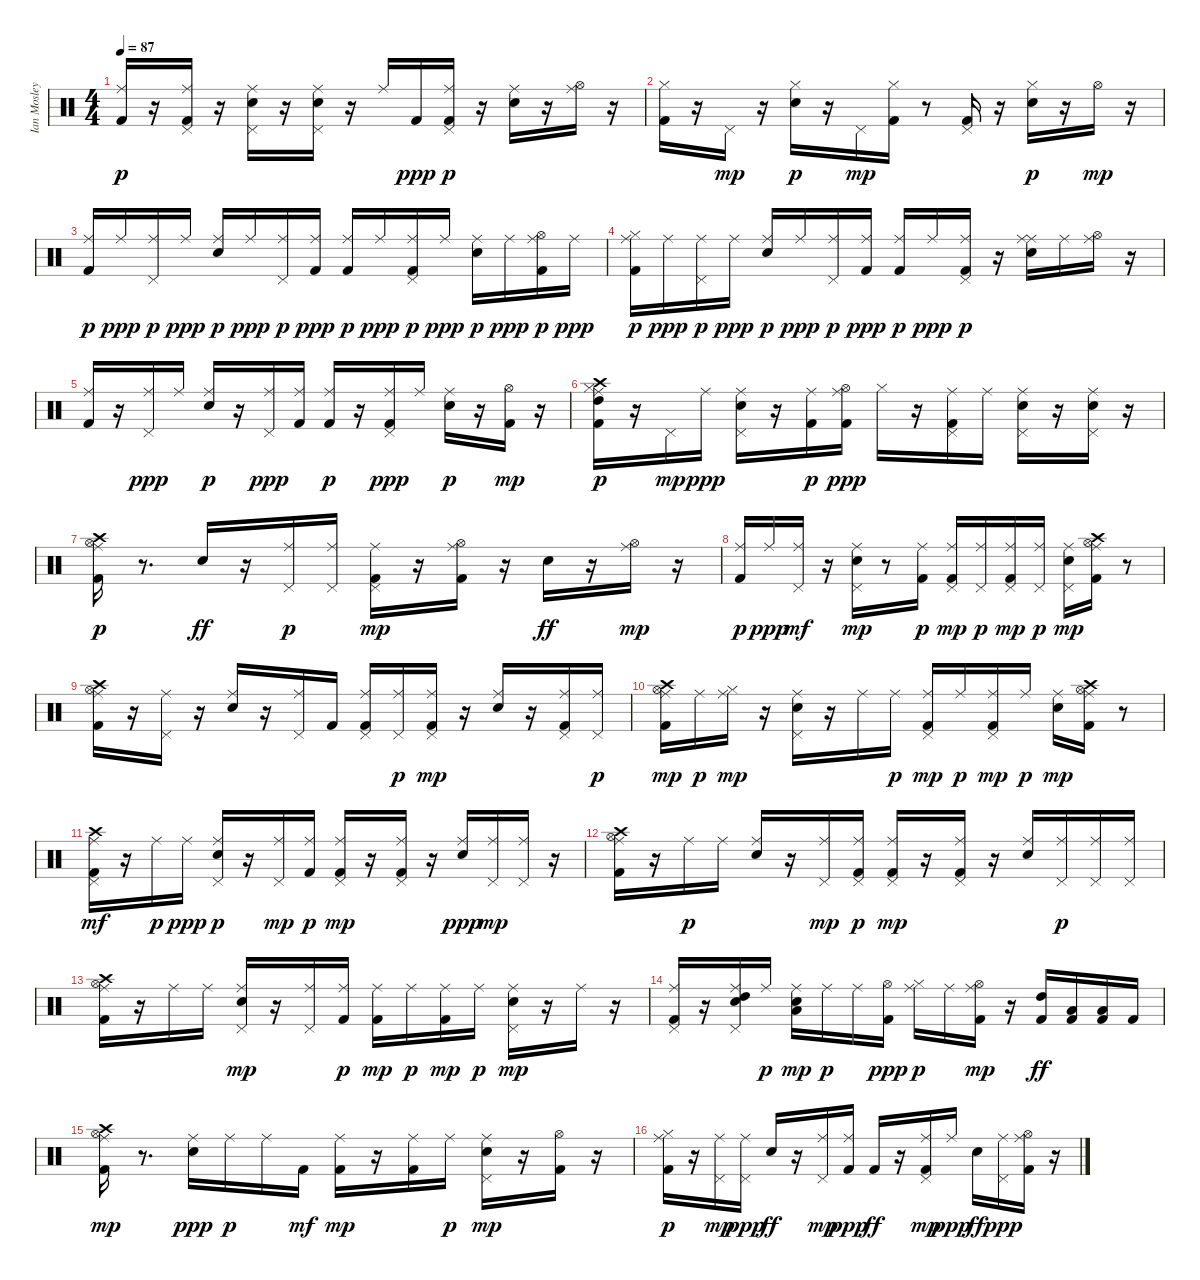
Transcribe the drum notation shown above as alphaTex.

\track ("Ian Mosley" "Ian Mosley") {instrument percussion}
\staff {score}
\articulation defaults
\ts (4 4)
\tempo 87
\clef neutral
\ks c
("Kick (hit) 2" "Ride (middle)").16{dy p} r.16 ("Kick (hit) 2" "Pedal Hi-Hat (hit)" "Ride (middle)").16 r.16 ("Snare (hit) 2" "Pedal Hi-Hat (hit)" "Ride (middle)").16 r.16 ("Snare (hit) 2" "Pedal Hi-Hat (hit)" "Ride (middle)").16 r.16 "Ride (middle)".16 "Kick (hit) 2".16{dy ppp} ("Kick (hit) 2" "Pedal Hi-Hat (hit)" "Ride (middle)").16{dy p} r.16 ("Snare (hit) 2" "Ride (middle)").16 r.16 ("Hi-Hat (open)" "Ride (middle)").16 r.16 |
("Kick (hit) 2" "Hi-Hat (closed)").16 r.16 "Pedal Hi-Hat (hit)".16{dy mp} r.16 ("Snare (hit) 2" "Hi-Hat (closed)").16{dy p} r.16 "Pedal Hi-Hat (hit)".16{dy mp} ("Kick (hit) 2" "Hi-Hat (closed)").16 r.8 ("Kick (hit) 2" "Pedal Hi-Hat (hit)").16 r.16 ("Snare (hit) 2" "Hi-Hat (closed)").16{dy p} r.16 "Hi-Hat (open)".16{dy mp} r.16 |
("Kick (hit) 2" "Ride (middle)").16{dy p} "Ride (middle)".16{dy ppp} ("Pedal Hi-Hat (hit)" "Ride (middle)").16{dy p} "Ride (middle)".16{dy ppp} ("Snare (hit) 2" "Ride (middle)").16{dy p} "Ride (middle)".16{dy ppp} ("Pedal Hi-Hat (hit)" "Ride (middle)").16{dy p} ("Kick (hit) 2" "Ride (middle)").16{dy ppp} ("Kick (hit) 2" "Ride (middle)").16{dy p} "Ride (middle)".16{dy ppp} ("Kick (hit) 2" "Pedal Hi-Hat (hit)" "Ride (middle)").16{dy p} "Ride (middle)".16{dy ppp} ("Snare (hit) 2" "Ride (middle)").16{dy p} "Ride (middle)".16{dy ppp} ("Hi-Hat (open)" "Kick (hit) 2" "Ride (middle)").16{dy p} "Ride (middle)".16{dy ppp} |
("Hi-Hat (closed)" "Kick (hit) 2" "Ride (middle)").16{dy p} "Ride (middle)".16{dy ppp} ("Pedal Hi-Hat (hit)" "Ride (middle)").16{dy p} "Ride (middle)".16{dy ppp} ("Snare (hit) 2" "Ride (middle)").16{dy p} "Ride (middle)".16{dy ppp} ("Pedal Hi-Hat (hit)" "Ride (middle)").16{dy p} ("Kick (hit) 2" "Ride (middle)").16{dy ppp} ("Kick (hit) 2" "Ride (middle)").16{dy p} "Ride (middle)".16{dy ppp} ("Kick (hit) 2" "Pedal Hi-Hat (hit)" "Ride (middle)").16{dy p} r.16 ("Snare (hit) 2" "Ride (middle)" "Ride (middle)").16 "Ride (middle)".16 ("Hi-Hat (open)" "Ride (middle)").16 r.16 |
("Kick (hit) 2" "Ride (middle)").16 r.16 ("Pedal Hi-Hat (hit)" "Ride (middle)").16{dy ppp} "Ride (middle)".16 ("Snare (hit) 2" "Ride (middle)").16{dy p} r.16 ("Pedal Hi-Hat (hit)" "Ride (middle)").16{dy ppp} ("Kick (hit) 2" "Ride (middle)").16 ("Kick (hit) 2" "Ride (middle)").16{dy p} r.16 ("Kick (hit) 2" "Pedal Hi-Hat (hit)" "Ride (middle)").16{dy ppp} "Ride (middle)".16 ("Snare (hit) 2" "Ride (middle)").16{dy p} r.16 ("Kick (hit) 2" "Hi-Hat (open)").16{dy mp} r.16 |
("Kick (hit) 2" "High Tom (hit)" "Hi-Hat (closed)" "Crash high (hit)" "Ride (middle)").16{dy p} r.16 "Pedal Hi-Hat (hit)".16{dy mp} "Ride (middle)".16{dy ppp} ("Snare (hit) 2" "Pedal Hi-Hat (hit)" "Ride (middle)").16 r.16 ("Kick (hit) 2" "Ride (middle)").16{dy p} ("Kick (hit) 2" "Hi-Hat (open)" "Ride (middle)").16{dy ppp} "Hi-Hat (closed)".16 r.16 ("Kick (hit) 2" "Pedal Hi-Hat (hit)" "Ride (middle)").16 "Ride (middle)".16 ("Snare (hit) 2" "Pedal Hi-Hat (hit)" "Ride (middle)").16 r.16 ("Snare (hit) 2" "Pedal Hi-Hat (hit)" "Ride (middle)").16 r.16 |
("Kick (hit) 2" "Hi-Hat (open)" "Crash high (hit)" "Ride (middle)").16{dy p} r.8{d} "Snare (hit) 2".16{dy ff} r.16 ("Pedal Hi-Hat (hit)" "Ride (middle)").16{dy p} ("Pedal Hi-Hat (hit)" "Ride (middle)").16 ("Pedal Hi-Hat (hit)" "Kick (hit) 2" "Ride (middle)").16{dy mp} r.16 ("Kick (hit) 2" "Hi-Hat (open)" "Ride (middle)").16 r.16 "Snare (hit) 2".16{dy ff} r.16 ("Hi-Hat (open)" "Ride (middle)").16{dy mp} r.16 |
("Kick (hit) 2" "Ride (middle)").16{dy p} "Ride (middle)".16{dy ppp} ("Pedal Hi-Hat (hit)" "Ride (middle)").16{dy mf} r.16 ("Snare (hit) 2" "Pedal Hi-Hat (hit)" "Ride (middle)").16{dy mp} r.8 ("Kick (hit) 2" "Ride (middle)").16{dy p} ("Kick (hit) 2" "Pedal Hi-Hat (hit)" "Ride (middle)").16{dy mp} ("Pedal Hi-Hat (hit)" "Ride (middle)").16{dy p} ("Kick (hit) 2" "Pedal Hi-Hat (hit)" "Ride (middle)").16{dy mp} ("Pedal Hi-Hat (hit)" "Ride (middle)").16{dy p} ("Snare (hit) 2" "Pedal Hi-Hat (hit)" "Ride (middle)").16{dy mp} ("Kick (hit) 2" "Hi-Hat (open)" "Crash high (hit)" "Ride (middle)").16 r.8 |
("Kick (hit) 2" "Hi-Hat (open)" "Crash high (hit)" "Ride (middle)").16 r.16 ("Pedal Hi-Hat (hit)" "Ride (middle)").16 r.16 ("Snare (hit) 2" "Ride (middle)").16 r.16 ("Pedal Hi-Hat (hit)" "Ride (middle)").16 "Kick (hit) 2".16 ("Kick (hit) 2" "Pedal Hi-Hat (hit)" "Ride (middle)").16 ("Pedal Hi-Hat (hit)" "Ride (middle)").16{dy p} ("Kick (hit) 2" "Pedal Hi-Hat (hit)" "Ride (middle)").16{dy mp} r.16 ("Snare (hit) 2" "Ride (middle)").16 r.16 ("Pedal Hi-Hat (hit)" "Kick (hit) 2" "Ride (middle)").16 ("Pedal Hi-Hat (hit)" "Ride (middle)").16{dy p} |
("Kick (hit) 2" "Hi-Hat (open)" "Crash high (hit)" "Ride (middle)").16{dy mp} "Ride (middle)".16{dy p} ("Hi-Hat (closed)" "Ride (middle)").16{dy mp} r.16 ("Snare (hit) 2" "Pedal Hi-Hat (hit)" "Ride (middle)").16 r.16 "Ride (middle)".16 "Ride (middle)".16{dy p} ("Pedal Hi-Hat (hit)" "Kick (hit) 2" "Ride (middle)").16{dy mp} "Ride (middle)".16{dy p} ("Kick (hit) 2" "Pedal Hi-Hat (hit)" "Ride (middle)").16{dy mp} "Ride (middle)".16{dy p} ("Snare (hit) 2" "Ride (middle)").16{dy mp} ("Kick (hit) 2" "Hi-Hat (open)" "Crash high (hit)" "Ride (middle)").16 r.8 |
("Kick (hit) 2" "Crash high (hit)" "Pedal Hi-Hat (hit)" "Ride (middle)").16{dy mf} r.16 "Ride (middle)".16{dy p} "Ride (middle)".16{dy ppp} ("Snare (hit) 2" "Pedal Hi-Hat (hit)" "Ride (middle)").16{dy p} r.16 ("Pedal Hi-Hat (hit)" "Ride (middle)").16{dy mp} ("Kick (hit) 2" "Ride (middle)").16{dy p} ("Kick (hit) 2" "Pedal Hi-Hat (hit)" "Ride (middle)").16{dy mp} r.16 ("Kick (hit) 2" "Pedal Hi-Hat (hit)" "Ride (middle)").16 r.16 ("Snare (hit) 2" "Ride (middle)").16{dy ppp} ("Pedal Hi-Hat (hit)" "Ride (middle)").16{dy mp} ("Pedal Hi-Hat (hit)" "Ride (middle)").16 r.16 |
("Kick (hit) 2" "Hi-Hat (open)" "Crash high (hit)" "Ride (middle)").16 r.16 "Ride (middle)".16{dy p} "Ride (middle)".16 ("Snare (hit) 2" "Ride (middle)").16 r.16 ("Pedal Hi-Hat (hit)" "Ride (middle)").16{dy mp} ("Kick (hit) 2" "Pedal Hi-Hat (hit)" "Ride (middle)").16{dy p} ("Kick (hit) 2" "Pedal Hi-Hat (hit)" "Ride (middle)").16{dy mp} r.16 ("Kick (hit) 2" "Pedal Hi-Hat (hit)" "Ride (middle)").16 r.16 ("Snare (hit) 2" "Ride (middle)").16 ("Pedal Hi-Hat (hit)" "Ride (middle)").16{dy p} ("Pedal Hi-Hat (hit)" "Ride (middle)").16 ("Pedal Hi-Hat (hit)" "Ride (middle)").16 |
("Hi-Hat (open)" "Kick (hit) 2" "Crash high (hit)" "Ride (middle)").16 r.16 "Ride (middle)".16 "Ride (middle)".16 ("Snare (hit) 2" "Pedal Hi-Hat (hit)" "Ride (middle)").16{dy mp} r.16 ("Pedal Hi-Hat (hit)" "Ride (middle)").16 ("Kick (hit) 2" "Ride (middle)").16{dy p} ("Kick (hit) 2" "Ride (middle)").16{dy mp} "Ride (middle)".16{dy p} ("Kick (hit) 2" "Ride (middle)").16{dy mp} "Ride (middle)".16{dy p} ("Snare (hit) 2" "Pedal Hi-Hat (hit)" "Ride (middle)").16{dy mp} r.16 "Ride (middle)".16 r.16 |
("Kick (hit) 2" "Pedal Hi-Hat (hit)" "Ride (middle)").16 r.16 ("Snare (hit) 2" "Pedal Hi-Hat (hit)" "High Tom (hit)" "Ride (middle)").16 "Ride (middle)".16{dy p} ("Snare (hit) 2" "Low Tom (hit)" "Ride (middle)").16{dy mp} "Ride (middle)".16{dy p} "Ride (middle)".16 ("Kick (hit) 2" "Hi-Hat (open)").16{dy ppp} ("Hi-Hat (closed)" "Ride (middle)").16{dy p} "Ride (middle)".16 ("Kick (hit) 2" "Hi-Hat (open)" "Ride (middle)").16{dy mp} r.16 ("Kick (hit) 2" "High Tom (hit)").16{dy ff} ("Kick (hit) 2" "Low Tom (hit)").16 ("Kick (hit) 2" "Low Floor Tom (hit)").16 "Kick (hit) 2".16 |
("Kick (hit) 2" "Hi-Hat (open)" "Crash high (hit)" "Ride (middle)").16{dy mp} r.8{d} ("Snare (hit) 2" "Ride (middle)").16{dy ppp} "Ride (middle)".16{dy p} "Ride (middle)".16 "Kick (hit) 2".16{dy mf} ("Kick (hit) 2" "Ride (middle)").16{dy mp} r.16 ("Kick (hit) 2" "Ride (middle)").16 "Ride (middle)".16{dy p} ("Snare (hit) 2" "Pedal Hi-Hat (hit)" "Ride (middle)").16{dy mp} r.16 ("Kick (hit) 2" "Hi-Hat (open)").16 r.16 |
("Kick (hit) 2" "Hi-Hat (closed)" "Ride (middle)").16{dy p} r.16 ("Pedal Hi-Hat (hit)" "Ride (middle)").16{dy mp} ("Pedal Hi-Hat (hit)" "Ride (middle)").16{dy ppp} "Snare (hit) 2".16{dy ff} r.16 ("Pedal Hi-Hat (hit)" "Ride (middle)").16{dy mp} ("Kick (hit) 2" "Ride (middle)").16{dy ppp} "Kick (hit) 2".16{dy ff} r.16 ("Kick (hit) 2" "Pedal Hi-Hat (hit)" "Ride (middle)").16{dy mp} "Ride (middle)".16{dy ppp} "Snare (hit) 2".16{dy ff} ("Pedal Hi-Hat (hit)" "Ride (middle)").16{dy ppp} ("Kick (hit) 2" "Hi-Hat (open)" "Ride (middle)").16 r.16
